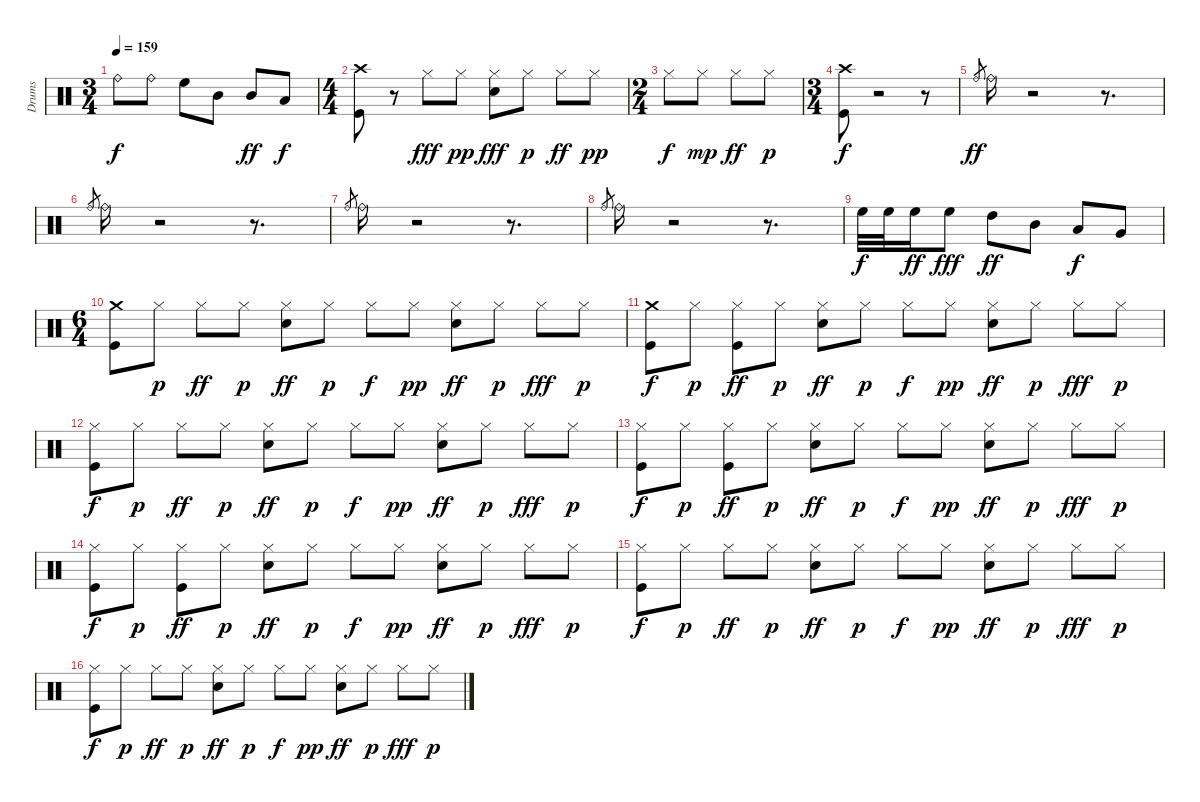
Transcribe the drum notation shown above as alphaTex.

\track ("Drums" "Drums") {instrument percussion}
\staff {score}
\articulation defaults
\ts (3 4)
\tempo 159
\clef neutral
\ks c "Ride (bell)".8{dy f} "Ride (bell)".8 "High Floor Tom (hit)".8 "Mid Tom (hit)".8 "Mid Tom (hit)".8{dy ff} "Low Tom (hit)".8{dy f}
|
\ts (4 4)
("Kick (hit)" "Crash high (hit)").8 r.8 "Hi-Hat (closed)".8{dy fff} "Hi-Hat (closed)".8{dy pp} ("Electric Snare (hit)" "Hi-Hat (closed)").8{dy fff} "Hi-Hat (closed)".8{dy p} "Hi-Hat (closed)".8{dy ff} "Hi-Hat (closed)".8{dy pp} |
\ts (2 4)
"Hi-Hat (closed)".8{dy f} "Hi-Hat (closed)".8{dy mp} "Hi-Hat (closed)".8{dy ff} "Hi-Hat (closed)".8{dy p} |
\ts (3 4)
("Kick (hit)" "Crash high (hit)").8{dy f} r.2 r.8 |
"Ride (bell)".8{gr dy ff} "Ride (bell)".16 r.2 r.8{d} |
"Ride (bell)".8{gr} "Ride (bell)".16 r.2 r.8{d} |
"Ride (bell)".8{gr} "Ride (bell)".16 r.2 r.8{d} |
"Ride (bell)".8{gr} "Ride (bell)".16 r.2 r.8{d} |
"High Floor Tom (hit)".32{dy f} "High Floor Tom (hit)".32 "High Floor Tom (hit)".16{dy ff} "High Floor Tom (hit)".8{dy fff} "High Tom (hit)".8{dy ff} "Mid Tom (hit)".8 "Low Tom (hit)".8{dy f} "Very Low Tom (hit)".8 |
\ts (6 4)
("Kick (hit)" "Crash medium (hit)").8 "Hi-Hat (closed)".8{dy p} "Hi-Hat (closed)".8{dy ff} "Hi-Hat (closed)".8{dy p} ("Electric Snare (hit)" "Hi-Hat (closed)").8{dy ff} "Hi-Hat (closed)".8{dy p} "Hi-Hat (closed)".8{dy f} "Hi-Hat (closed)".8{dy pp} ("Electric Snare (hit)" "Hi-Hat (closed)").8{dy ff} "Hi-Hat (closed)".8{dy p} "Hi-Hat (closed)".8{dy fff} "Hi-Hat (closed)".8{dy p} |
("Kick (hit)" "Crash medium (hit)").8{dy f} "Hi-Hat (closed)".8{dy p} ("Kick (hit)" "Hi-Hat (closed)").8{dy ff} "Hi-Hat (closed)".8{dy p} ("Electric Snare (hit)" "Hi-Hat (closed)").8{dy ff} "Hi-Hat (closed)".8{dy p} "Hi-Hat (closed)".8{dy f} "Hi-Hat (closed)".8{dy pp} ("Electric Snare (hit)" "Hi-Hat (closed)").8{dy ff} "Hi-Hat (closed)".8{dy p} "Hi-Hat (closed)".8{dy fff} "Hi-Hat (closed)".8{dy p} |
("Kick (hit)" "Hi-Hat (closed)").8{dy f} "Hi-Hat (closed)".8{dy p} "Hi-Hat (closed)".8{dy ff} "Hi-Hat (closed)".8{dy p} ("Electric Snare (hit)" "Hi-Hat (closed)").8{dy ff} "Hi-Hat (closed)".8{dy p} "Hi-Hat (closed)".8{dy f} "Hi-Hat (closed)".8{dy pp} ("Electric Snare (hit)" "Hi-Hat (closed)").8{dy ff} "Hi-Hat (closed)".8{dy p} "Hi-Hat (closed)".8{dy fff} "Hi-Hat (closed)".8{dy p} |
("Kick (hit)" "Hi-Hat (closed)").8{dy f} "Hi-Hat (closed)".8{dy p} ("Kick (hit)" "Hi-Hat (closed)").8{dy ff} "Hi-Hat (closed)".8{dy p} ("Electric Snare (hit)" "Hi-Hat (closed)").8{dy ff} "Hi-Hat (closed)".8{dy p} "Hi-Hat (closed)".8{dy f} "Hi-Hat (closed)".8{dy pp} ("Electric Snare (hit)" "Hi-Hat (closed)").8{dy ff} "Hi-Hat (closed)".8{dy p} "Hi-Hat (closed)".8{dy fff} "Hi-Hat (closed)".8{dy p} |
("Kick (hit)" "Hi-Hat (closed)").8{dy f} "Hi-Hat (closed)".8{dy p} ("Kick (hit)" "Hi-Hat (closed)").8{dy ff} "Hi-Hat (closed)".8{dy p} ("Electric Snare (hit)" "Hi-Hat (closed)").8{dy ff} "Hi-Hat (closed)".8{dy p} "Hi-Hat (closed)".8{dy f} "Hi-Hat (closed)".8{dy pp} ("Electric Snare (hit)" "Hi-Hat (closed)").8{dy ff} "Hi-Hat (closed)".8{dy p} "Hi-Hat (closed)".8{dy fff} "Hi-Hat (closed)".8{dy p} |
("Kick (hit)" "Hi-Hat (closed)").8{dy f} "Hi-Hat (closed)".8{dy p} "Hi-Hat (closed)".8{dy ff} "Hi-Hat (closed)".8{dy p} ("Electric Snare (hit)" "Hi-Hat (closed)").8{dy ff} "Hi-Hat (closed)".8{dy p} "Hi-Hat (closed)".8{dy f} "Hi-Hat (closed)".8{dy pp} ("Electric Snare (hit)" "Hi-Hat (closed)").8{dy ff} "Hi-Hat (closed)".8{dy p} "Hi-Hat (closed)".8{dy fff} "Hi-Hat (closed)".8{dy p} |
("Kick (hit)" "Hi-Hat (closed)").8{dy f} "Hi-Hat (closed)".8{dy p} "Hi-Hat (closed)".8{dy ff} "Hi-Hat (closed)".8{dy p} ("Electric Snare (hit)" "Hi-Hat (closed)").8{dy ff} "Hi-Hat (closed)".8{dy p} "Hi-Hat (closed)".8{dy f} "Hi-Hat (closed)".8{dy pp} ("Electric Snare (hit)" "Hi-Hat (closed)").8{dy ff} "Hi-Hat (closed)".8{dy p} "Hi-Hat (closed)".8{dy fff} "Hi-Hat (closed)".8{dy p}
